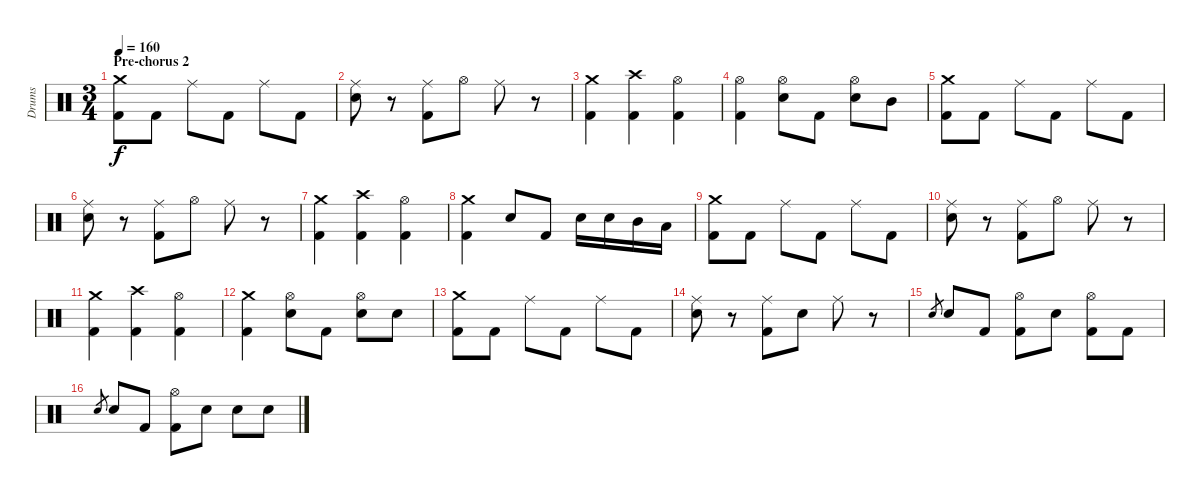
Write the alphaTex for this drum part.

\track ("Drums" "Drums") {instrument percussion}
\staff {score}
\articulation defaults
\ts (3 4)
\section ("" "Pre-chorus 2")
\tempo 160
\clef neutral
\ks c
("Crash medium (hit)" "Kick (hit) 2").8{dy f} "Kick (hit) 2".8 "Ride (middle)".8 "Kick (hit) 2".8 "Ride (middle)".8 "Kick (hit) 2".8 |
("Ride (middle)" "Snare (hit) 2").8 r.8 ("Ride (middle)" "Kick (hit) 2").8 "Hi-Hat (open)".8 "Ride (middle)".8 r.8 |
("Crash medium (hit)" "Kick (hit) 2").4 ("Crash high (hit)" "Kick (hit) 2").4 ("Hi-Hat (open)" "Kick (hit) 2").4 |
("Hi-Hat (open)" "Kick (hit) 2").4 ("Hi-Hat (open)" "Snare (hit) 2").8 "Kick (hit) 2".8 ("Hi-Hat (open)" "Snare (hit) 2").8 "Mid Tom (hit)".8 |
("Crash medium (hit)" "Kick (hit) 2").8 "Kick (hit) 2".8 "Ride (middle)".8 "Kick (hit) 2".8 "Ride (middle)".8 "Kick (hit) 2".8 |
("Ride (middle)" "Snare (hit) 2").8 r.8 ("Ride (middle)" "Kick (hit) 2").8 "Hi-Hat (open)".8 "Ride (middle)".8 r.8 |
("Crash medium (hit)" "Kick (hit) 2").4 ("Crash high (hit)" "Kick (hit) 2").4 ("Hi-Hat (open)" "Kick (hit) 2").4 |
("Crash medium (hit)" "Kick (hit) 2").4 "Snare (hit) 2".8 "Kick (hit) 2".8 "Snare (hit) 2".16 "Snare (hit) 2".16 "Mid Tom (hit)".16 "Low Tom (hit)".16 |
("Crash medium (hit)" "Kick (hit) 2").8 "Kick (hit) 2".8 "Ride (middle)".8 "Kick (hit) 2".8 "Ride (middle)".8 "Kick (hit) 2".8 |
("Ride (middle)" "Snare (hit) 2").8 r.8 ("Ride (middle)" "Kick (hit) 2").8 "Hi-Hat (open)".8 "Ride (middle)".8 r.8 |
("Crash medium (hit)" "Kick (hit) 2").4 ("Crash high (hit)" "Kick (hit) 2").4 ("Hi-Hat (open)" "Kick (hit) 2").4 |
("Crash medium (hit)" "Kick (hit) 2").4 ("Hi-Hat (open)" "Snare (hit) 2").8 "Kick (hit) 2".8 ("Hi-Hat (open)" "Snare (hit) 2").8 "Snare (hit) 2".8 |
("Crash medium (hit)" "Kick (hit) 2").8 "Kick (hit) 2".8 "Ride (middle)".8 "Kick (hit) 2".8 "Ride (middle)".8 "Kick (hit) 2".8 |
("Ride (middle)" "Snare (hit) 2").8 r.8 ("Ride (middle)" "Kick (hit) 2").8 "Snare (hit) 2".8 "Ride (middle)".8 r.8 |
"Snare (hit) 2".8{gr} "Snare (hit) 2".8 "Kick (hit) 2".8 ("Hi-Hat (open)" "Kick (hit) 2").8 "Snare (hit) 2".8 ("Hi-Hat (open)" "Kick (hit) 2").8 "Kick (hit) 2".8 |
"Snare (hit) 2".8{gr} "Snare (hit) 2".8 "Kick (hit) 2".8 ("Hi-Hat (open)" "Kick (hit) 2").8 "Snare (hit) 2".8 "Snare (hit) 2".8 "Snare (hit) 2".8
